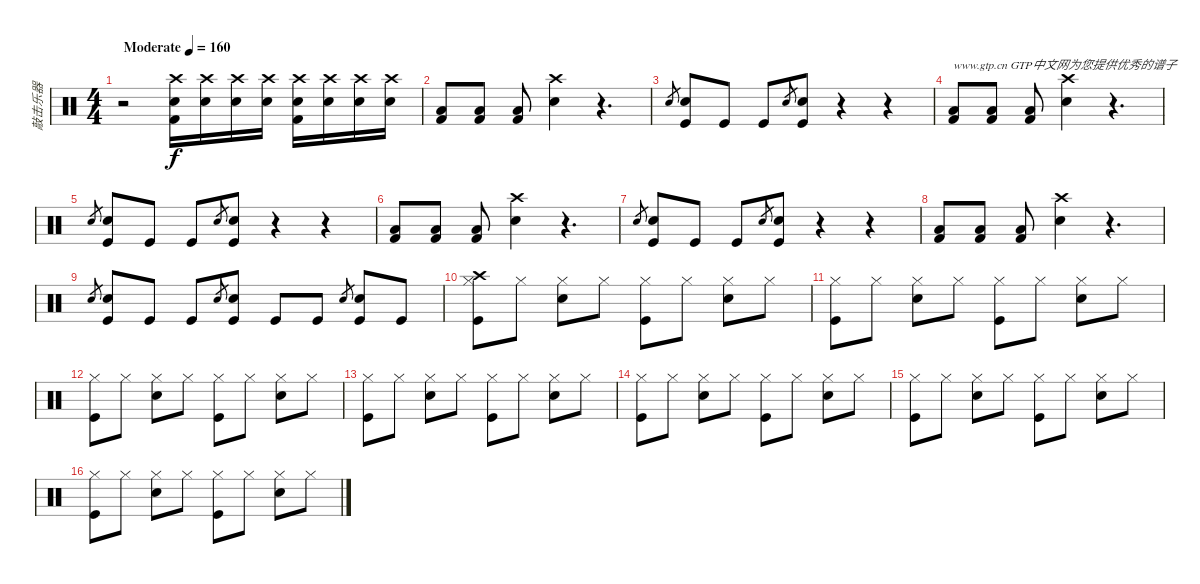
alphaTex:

\track ("敲击乐器" "敲击乐器") {instrument percussion}
\staff {score}
\articulation defaults
\ts (4 4)
\tempo (160 "Moderate")
\clef neutral
\ks c
r.2{dy f} ("Crash high (hit)" "Snare (hit) 2" "Kick (hit) 2").16 ("Crash high (hit)" "Snare (hit) 2").16 ("Crash high (hit)" "Snare (hit) 2").16 ("Crash high (hit)" "Snare (hit) 2").16 ("Crash high (hit)" "Snare (hit) 2" "Kick (hit) 2").16 ("Crash high (hit)" "Snare (hit) 2").16 ("Crash high (hit)" "Snare (hit) 2").16 ("Crash high (hit)" "Snare (hit) 2").16 |
("Low Floor Tom (hit)" "Kick (hit) 2").8 ("Low Floor Tom (hit)" "Kick (hit) 2").8 ("Low Floor Tom (hit)" "Kick (hit) 2").8 ("Crash high (hit)" "Snare (hit) 2").4 r.4{d} |
"Snare (hit) 2".8{gr} ("Snare (hit) 2" "Kick (hit)").8 "Kick (hit)".8 "Kick (hit)".8 "Snare (hit) 2".8{gr} ("Snare (hit) 2" "Kick (hit)").8 r.4 r.4 |
("Low Floor Tom (hit)" "Kick (hit) 2").8{txt "www.gtp.cn GTP中文网为您提供优秀的谱子"} ("Low Floor Tom (hit)" "Kick (hit) 2").8 ("Low Floor Tom (hit)" "Kick (hit) 2").8 ("Crash high (hit)" "Snare (hit) 2").4 r.4{d} |
"Snare (hit) 2".8{gr} ("Snare (hit) 2" "Kick (hit)").8 "Kick (hit)".8 "Kick (hit)".8 "Snare (hit) 2".8{gr} ("Snare (hit) 2" "Kick (hit)").8 r.4 r.4 |
("Low Floor Tom (hit)" "Kick (hit) 2").8 ("Low Floor Tom (hit)" "Kick (hit) 2").8 ("Low Floor Tom (hit)" "Kick (hit) 2").8 ("Crash high (hit)" "Snare (hit) 2").4 r.4{d} |
"Snare (hit) 2".8{gr} ("Snare (hit) 2" "Kick (hit)").8 "Kick (hit)".8 "Kick (hit)".8 "Snare (hit) 2".8{gr} ("Snare (hit) 2" "Kick (hit)").8 r.4 r.4 |
("Low Floor Tom (hit)" "Kick (hit) 2").8 ("Low Floor Tom (hit)" "Kick (hit) 2").8 ("Low Floor Tom (hit)" "Kick (hit) 2").8 ("Crash high (hit)" "Snare (hit) 2").4 r.4{d} |
"Snare (hit) 2".8{gr} ("Snare (hit) 2" "Kick (hit)").8 "Kick (hit)".8 "Kick (hit)".8 "Snare (hit) 2".8{gr} ("Snare (hit) 2" "Kick (hit)").8 "Kick (hit)".8 "Kick (hit)".8 "Snare (hit) 2".8{gr} ("Snare (hit) 2" "Kick (hit)").8 "Kick (hit)".8 |
("Crash high (hit)" "Hi-Hat (closed)" "Kick (hit)").8 "Hi-Hat (closed)".8 ("Snare (hit) 2" "Hi-Hat (closed)").8 "Hi-Hat (closed)".8 ("Hi-Hat (closed)" "Kick (hit)").8 "Hi-Hat (closed)".8 ("Snare (hit) 2" "Hi-Hat (closed)").8 "Hi-Hat (closed)".8 |
("Hi-Hat (closed)" "Kick (hit)").8 "Hi-Hat (closed)".8 ("Snare (hit) 2" "Hi-Hat (closed)").8 "Hi-Hat (closed)".8 ("Hi-Hat (closed)" "Kick (hit)").8 "Hi-Hat (closed)".8 ("Snare (hit) 2" "Hi-Hat (closed)").8 "Hi-Hat (closed)".8 |
("Hi-Hat (closed)" "Kick (hit)").8 "Hi-Hat (closed)".8 ("Snare (hit) 2" "Hi-Hat (closed)").8 "Hi-Hat (closed)".8 ("Hi-Hat (closed)" "Kick (hit)").8 "Hi-Hat (closed)".8 ("Snare (hit) 2" "Hi-Hat (closed)").8 "Hi-Hat (closed)".8 |
("Hi-Hat (closed)" "Kick (hit)").8 "Hi-Hat (closed)".8 ("Snare (hit) 2" "Hi-Hat (closed)").8 "Hi-Hat (closed)".8 ("Hi-Hat (closed)" "Kick (hit)").8 "Hi-Hat (closed)".8 ("Snare (hit) 2" "Hi-Hat (closed)").8 "Hi-Hat (closed)".8 |
("Hi-Hat (closed)" "Kick (hit)").8 "Hi-Hat (closed)".8 ("Snare (hit) 2" "Hi-Hat (closed)").8 "Hi-Hat (closed)".8 ("Hi-Hat (closed)" "Kick (hit)").8 "Hi-Hat (closed)".8 ("Snare (hit) 2" "Hi-Hat (closed)").8 "Hi-Hat (closed)".8 |
("Hi-Hat (closed)" "Kick (hit)").8 "Hi-Hat (closed)".8 ("Snare (hit) 2" "Hi-Hat (closed)").8 "Hi-Hat (closed)".8 ("Hi-Hat (closed)" "Kick (hit)").8 "Hi-Hat (closed)".8 ("Snare (hit) 2" "Hi-Hat (closed)").8 "Hi-Hat (closed)".8 |
("Hi-Hat (closed)" "Kick (hit)").8 "Hi-Hat (closed)".8 ("Snare (hit) 2" "Hi-Hat (closed)").8 "Hi-Hat (closed)".8 ("Hi-Hat (closed)" "Kick (hit)").8 "Hi-Hat (closed)".8 ("Snare (hit) 2" "Hi-Hat (closed)").8 "Hi-Hat (closed)".8
